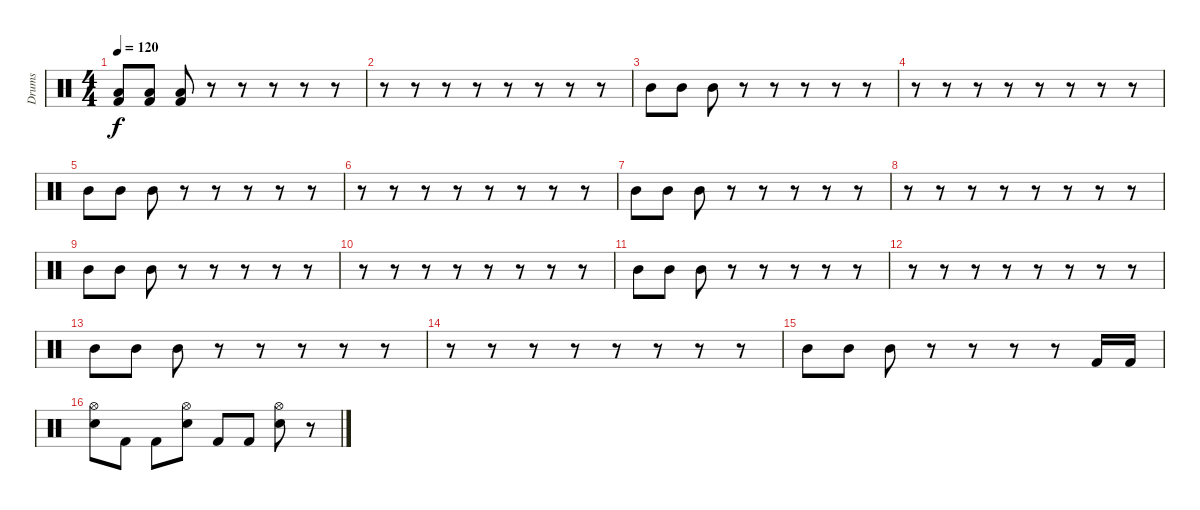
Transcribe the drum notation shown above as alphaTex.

\track ("Drums" "Drums") {instrument percussion}
\staff {score}
\articulation defaults
\ts (4 4)
\tempo 120
\clef neutral
\ks c
("Low Floor Tom (hit)" "Kick (hit) 2").8{dy f} ("Low Floor Tom (hit)" "Kick (hit) 2").8 ("Low Floor Tom (hit)" "Kick (hit) 2").8 r.8 r.8 r.8 r.8 r.8 |
r.8 r.8 r.8 r.8 r.8 r.8 r.8 r.8 |
"Mid Tom (hit)".8 "Mid Tom (hit)".8 "Mid Tom (hit)".8 r.8 r.8 r.8 r.8 r.8 |
r.8 r.8 r.8 r.8 r.8 r.8 r.8 r.8 |
"Mid Tom (hit)".8 "Mid Tom (hit)".8 "Mid Tom (hit)".8 r.8 r.8 r.8 r.8 r.8 |
r.8 r.8 r.8 r.8 r.8 r.8 r.8 r.8 |
"Mid Tom (hit)".8 "Mid Tom (hit)".8 "Mid Tom (hit)".8 r.8 r.8 r.8 r.8 r.8 |
r.8 r.8 r.8 r.8 r.8 r.8 r.8 r.8 |
"Mid Tom (hit)".8 "Mid Tom (hit)".8 "Mid Tom (hit)".8 r.8 r.8 r.8 r.8 r.8 |
r.8 r.8 r.8 r.8 r.8 r.8 r.8 r.8 |
"Mid Tom (hit)".8 "Mid Tom (hit)".8 "Mid Tom (hit)".8 r.8 r.8 r.8 r.8 r.8 |
r.8 r.8 r.8 r.8 r.8 r.8 r.8 r.8 |
"Mid Tom (hit)".8 "Mid Tom (hit)".8 "Mid Tom (hit)".8 r.8 r.8 r.8 r.8 r.8 |
r.8 r.8 r.8 r.8 r.8 r.8 r.8 r.8 |
"Mid Tom (hit)".8 "Mid Tom (hit)".8 "Mid Tom (hit)".8 r.8 r.8 r.8 r.8 "Kick (hit) 2".16 "Kick (hit) 2".16 |
("Hi-Hat (open)" "Snare (hit) 2").8 "Kick (hit) 2".8 "Kick (hit) 2".8 ("Hi-Hat (open)" "Snare (hit) 2").8 "Kick (hit) 2".8 "Kick (hit) 2".8 ("Hi-Hat (open)" "Snare (hit) 2").8 r.8
